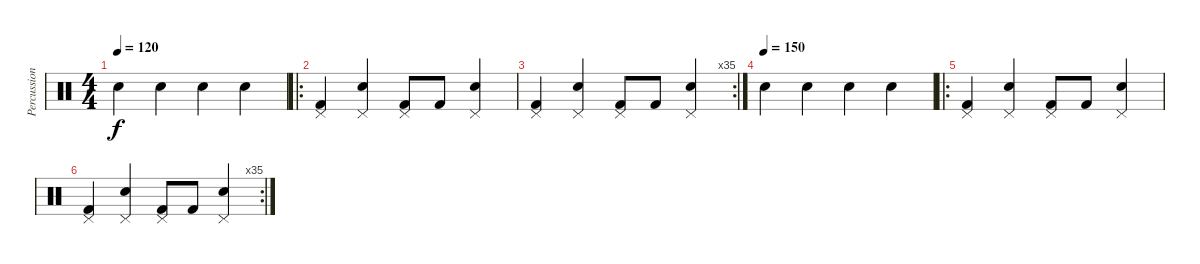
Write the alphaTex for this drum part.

\track ("Percussion" "Percussion") {instrument percussion}
\staff {score}
\articulation defaults
\ts (4 4)
\tempo 120
\clef neutral
\ks c "Electric Snare (hit)".4{dy f} "Electric Snare (hit)".4 "Electric Snare (hit)".4 "Electric Snare (hit)".4
|
\ro
("Pedal Hi-Hat (hit)" "Kick (hit) 2").4 ("Pedal Hi-Hat (hit)" "Electric Snare (hit)").4 ("Pedal Hi-Hat (hit)" "Kick (hit) 2").8 "Kick (hit) 2".8 ("Pedal Hi-Hat (hit)" "Electric Snare (hit)").4 |
\rc 35
("Pedal Hi-Hat (hit)" "Kick (hit) 2").4 ("Pedal Hi-Hat (hit)" "Electric Snare (hit)").4 ("Pedal Hi-Hat (hit)" "Kick (hit) 2").8 "Kick (hit) 2".8 ("Pedal Hi-Hat (hit)" "Electric Snare (hit)").4 |
\tempo (150)
"Electric Snare (hit)".4 "Electric Snare (hit)".4 "Electric Snare (hit)".4 "Electric Snare (hit)".4 |
\ro
("Pedal Hi-Hat (hit)" "Kick (hit) 2").4 ("Pedal Hi-Hat (hit)" "Electric Snare (hit)").4 ("Pedal Hi-Hat (hit)" "Kick (hit) 2").8 "Kick (hit) 2".8 ("Pedal Hi-Hat (hit)" "Electric Snare (hit)").4 |
\rc 35
("Pedal Hi-Hat (hit)" "Kick (hit) 2").4 ("Pedal Hi-Hat (hit)" "Electric Snare (hit)").4 ("Pedal Hi-Hat (hit)" "Kick (hit) 2").8 "Kick (hit) 2".8 ("Pedal Hi-Hat (hit)" "Electric Snare (hit)").4
